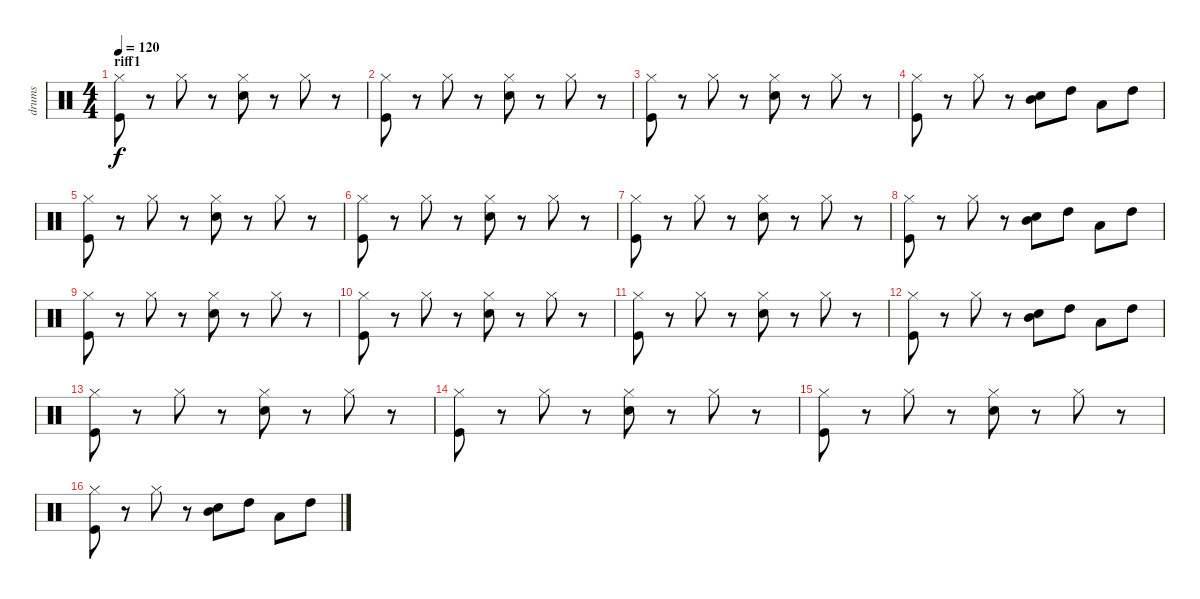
\track ("drums" "drums") {instrument percussion}
\staff {score}
\articulation defaults
\ts (4 4)
\section ("" "riff1")
\tempo 120
\clef neutral
\ks c
("Hi-Hat (closed)" "Kick (hit)").8{dy f} r.8 "Hi-Hat (closed)".8 r.8 ("Hi-Hat (closed)" "Electric Snare (hit)").8 r.8 "Hi-Hat (closed)".8 r.8 |
("Hi-Hat (closed)" "Kick (hit)").8 r.8 "Hi-Hat (closed)".8 r.8 ("Hi-Hat (closed)" "Electric Snare (hit)").8 r.8 "Hi-Hat (closed)".8 r.8 |
("Hi-Hat (closed)" "Kick (hit)").8 r.8 "Hi-Hat (closed)".8 r.8 ("Hi-Hat (closed)" "Electric Snare (hit)").8 r.8 "Hi-Hat (closed)".8 r.8 |
("Hi-Hat (closed)" "Kick (hit)").8 r.8 "Hi-Hat (closed)".8 r.8 ("Mid Tom (hit)" "Electric Snare (hit)").8 "High Tom (hit)".8 "Low Tom (hit)".8 "High Tom (hit)".8 |
("Hi-Hat (closed)" "Kick (hit)").8 r.8 "Hi-Hat (closed)".8 r.8 ("Hi-Hat (closed)" "Electric Snare (hit)").8 r.8 "Hi-Hat (closed)".8 r.8 |
("Hi-Hat (closed)" "Kick (hit)").8 r.8 "Hi-Hat (closed)".8 r.8 ("Hi-Hat (closed)" "Electric Snare (hit)").8 r.8 "Hi-Hat (closed)".8 r.8 |
("Hi-Hat (closed)" "Kick (hit)").8 r.8 "Hi-Hat (closed)".8 r.8 ("Hi-Hat (closed)" "Electric Snare (hit)").8 r.8 "Hi-Hat (closed)".8 r.8 |
("Hi-Hat (closed)" "Kick (hit)").8 r.8 "Hi-Hat (closed)".8 r.8 ("Mid Tom (hit)" "Electric Snare (hit)").8 "High Tom (hit)".8 "Low Tom (hit)".8 "High Tom (hit)".8 |
("Hi-Hat (closed)" "Kick (hit)").8 r.8 "Hi-Hat (closed)".8 r.8 ("Hi-Hat (closed)" "Electric Snare (hit)").8 r.8 "Hi-Hat (closed)".8 r.8 |
("Hi-Hat (closed)" "Kick (hit)").8 r.8 "Hi-Hat (closed)".8 r.8 ("Hi-Hat (closed)" "Electric Snare (hit)").8 r.8 "Hi-Hat (closed)".8 r.8 |
("Hi-Hat (closed)" "Kick (hit)").8 r.8 "Hi-Hat (closed)".8 r.8 ("Hi-Hat (closed)" "Electric Snare (hit)").8 r.8 "Hi-Hat (closed)".8 r.8 |
("Hi-Hat (closed)" "Kick (hit)").8 r.8 "Hi-Hat (closed)".8 r.8 ("Mid Tom (hit)" "Electric Snare (hit)").8 "High Tom (hit)".8 "Low Tom (hit)".8 "High Tom (hit)".8 |
("Hi-Hat (closed)" "Kick (hit)").8 r.8 "Hi-Hat (closed)".8 r.8 ("Hi-Hat (closed)" "Electric Snare (hit)").8 r.8 "Hi-Hat (closed)".8 r.8 |
("Hi-Hat (closed)" "Kick (hit)").8 r.8 "Hi-Hat (closed)".8 r.8 ("Hi-Hat (closed)" "Electric Snare (hit)").8 r.8 "Hi-Hat (closed)".8 r.8 |
("Hi-Hat (closed)" "Kick (hit)").8 r.8 "Hi-Hat (closed)".8 r.8 ("Hi-Hat (closed)" "Electric Snare (hit)").8 r.8 "Hi-Hat (closed)".8 r.8 |
("Hi-Hat (closed)" "Kick (hit)").8 r.8 "Hi-Hat (closed)".8 r.8 ("Mid Tom (hit)" "Electric Snare (hit)").8 "High Tom (hit)".8 "Low Tom (hit)".8 "High Tom (hit)".8
